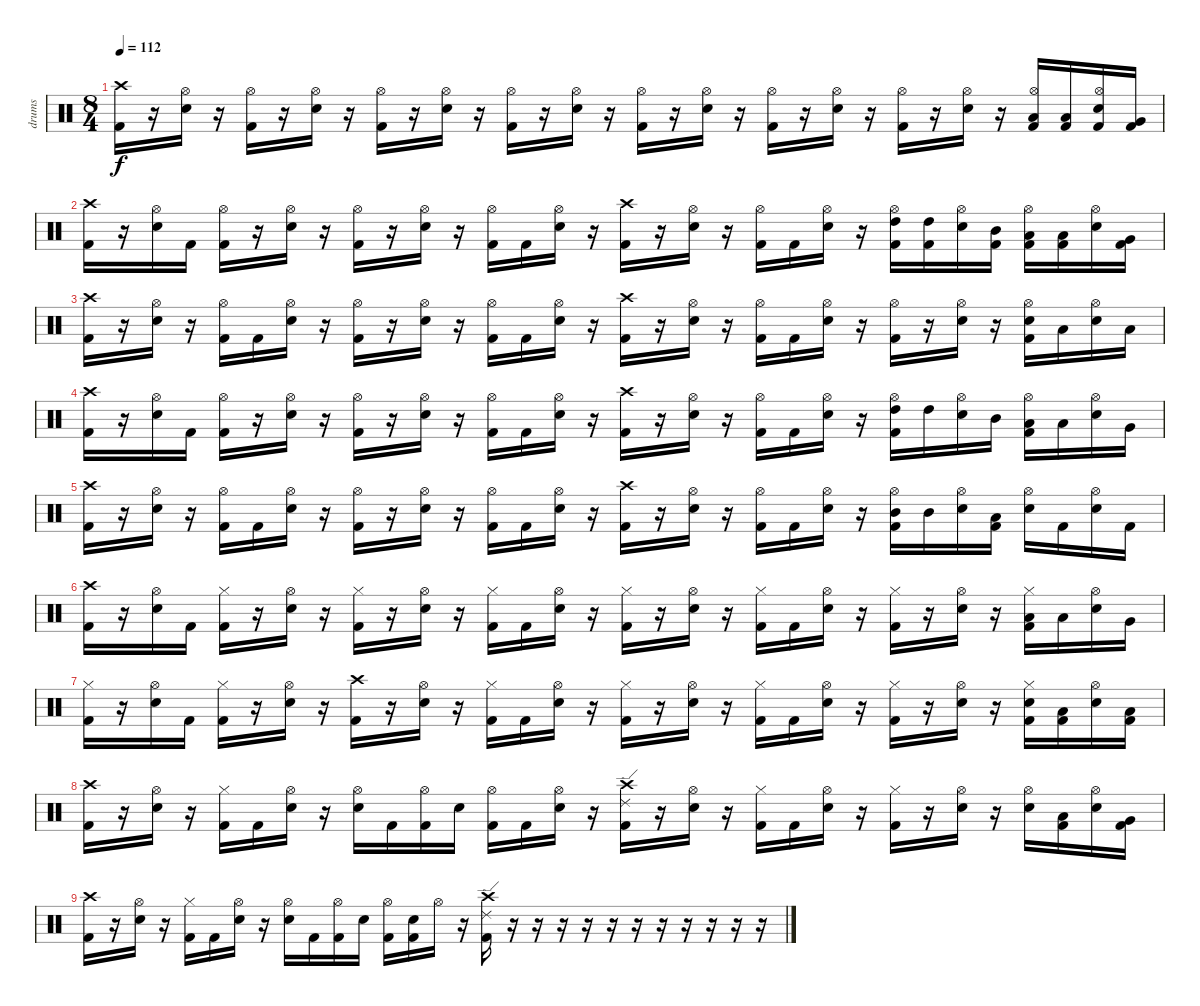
\track ("drums" "drums") {instrument percussion}
\staff {score}
\articulation defaults
\ts (8 4)
\tempo 112
\clef neutral
\ks c
("Crash high (hit)" "Kick (hit) 2").16{dy f} r.16 ("Hi-Hat (open)" "Electric Snare (hit)").16 r.16 ("Hi-Hat (open)" "Kick (hit) 2").16 r.16 ("Hi-Hat (open)" "Electric Snare (hit)").16 r.16 ("Hi-Hat (open)" "Kick (hit) 2").16 r.16 ("Hi-Hat (open)" "Electric Snare (hit)").16 r.16 ("Hi-Hat (open)" "Kick (hit) 2").16 r.16 ("Hi-Hat (open)" "Electric Snare (hit)").16 r.16 ("Hi-Hat (open)" "Kick (hit) 2").16 r.16 ("Hi-Hat (open)" "Electric Snare (hit)").16 r.16 ("Hi-Hat (open)" "Kick (hit) 2").16 r.16 ("Hi-Hat (open)" "Electric Snare (hit)").16 r.16 ("Hi-Hat (open)" "Kick (hit) 2").16 r.16 ("Hi-Hat (open)" "Electric Snare (hit)").16 r.16 ("Hi-Hat (open)" "Low Tom (hit)" "Kick (hit) 2").16 ("Low Tom (hit)" "Kick (hit) 2").16 ("Hi-Hat (open)" "Electric Snare (hit)" "Kick (hit) 2").16 ("Very Low Tom (hit)" "Kick (hit) 2").16 |
("Crash high (hit)" "Kick (hit) 2").16 r.16 ("Hi-Hat (open)" "Electric Snare (hit)").16 "Kick (hit) 2".16 ("Hi-Hat (open)" "Kick (hit) 2").16 r.16 ("Hi-Hat (open)" "Electric Snare (hit)").16 r.16 ("Hi-Hat (open)" "Kick (hit) 2").16 r.16 ("Hi-Hat (open)" "Electric Snare (hit)").16 r.16 ("Hi-Hat (open)" "Kick (hit) 2").16 "Kick (hit) 2".16 ("Hi-Hat (open)" "Electric Snare (hit)").16 r.16 ("Crash high (hit)" "Kick (hit) 2").16 r.16 ("Hi-Hat (open)" "Electric Snare (hit)").16 r.16 ("Hi-Hat (open)" "Kick (hit) 2").16 "Kick (hit) 2".16 ("Hi-Hat (open)" "Electric Snare (hit)").16 r.16 ("Hi-Hat (open)" "High Tom (hit)" "Kick (hit) 2").16 ("High Tom (hit)" "Kick (hit) 2").16 ("Hi-Hat (open)" "Electric Snare (hit)").16 ("Mid Tom (hit)" "Kick (hit) 2").16 ("Hi-Hat (open)" "Low Tom (hit)" "Kick (hit) 2").16 ("Low Tom (hit)" "Kick (hit) 2").16 ("Hi-Hat (open)" "Electric Snare (hit)").16 ("Very Low Tom (hit)" "Kick (hit) 2").16 |
("Crash high (hit)" "Kick (hit) 2").16 r.16 ("Hi-Hat (open)" "Electric Snare (hit)").16 r.16 ("Hi-Hat (open)" "Kick (hit) 2").16 "Kick (hit) 2".16 ("Hi-Hat (open)" "Electric Snare (hit)").16 r.16 ("Hi-Hat (open)" "Kick (hit) 2").16 r.16 ("Hi-Hat (open)" "Electric Snare (hit)").16 r.16 ("Hi-Hat (open)" "Kick (hit) 2").16 "Kick (hit) 2".16 ("Hi-Hat (open)" "Electric Snare (hit)").16 r.16 ("Crash high (hit)" "Kick (hit) 2").16 r.16 ("Hi-Hat (open)" "Electric Snare (hit)").16 r.16 ("Hi-Hat (open)" "Kick (hit) 2").16 "Kick (hit) 2".16 ("Hi-Hat (open)" "Electric Snare (hit)").16 r.16 ("Hi-Hat (open)" "Kick (hit) 2").16 r.16 ("Hi-Hat (open)" "Electric Snare (hit)").16 r.16 ("Hi-Hat (open)" "Electric Snare (hit)" "Kick (hit) 2").16 "Low Tom (hit)".16 ("Hi-Hat (open)" "Electric Snare (hit)").16 "Low Tom (hit)".16 |
("Crash high (hit)" "Kick (hit) 2").16 r.16 ("Hi-Hat (open)" "Electric Snare (hit)").16 "Kick (hit) 2".16 ("Hi-Hat (open)" "Kick (hit) 2").16 r.16 ("Hi-Hat (open)" "Electric Snare (hit)").16 r.16 ("Hi-Hat (open)" "Kick (hit) 2").16 r.16 ("Hi-Hat (open)" "Electric Snare (hit)").16 r.16 ("Hi-Hat (open)" "Kick (hit) 2").16 "Kick (hit) 2".16 ("Hi-Hat (open)" "Electric Snare (hit)").16 r.16 ("Crash high (hit)" "Kick (hit) 2").16 r.16 ("Hi-Hat (open)" "Electric Snare (hit)").16 r.16 ("Hi-Hat (open)" "Kick (hit) 2").16 "Kick (hit) 2".16 ("Hi-Hat (open)" "Electric Snare (hit)").16 r.16 ("Hi-Hat (open)" "High Tom (hit)" "Kick (hit) 2").16 "High Tom (hit)".16 ("Hi-Hat (open)" "Electric Snare (hit)").16 "Mid Tom (hit)".16 ("Hi-Hat (open)" "Low Tom (hit)" "Kick (hit) 2").16 "Low Tom (hit)".16 ("Hi-Hat (open)" "Electric Snare (hit)").16 "Very Low Tom (hit)".16 |
("Crash high (hit)" "Kick (hit) 2").16 r.16 ("Hi-Hat (open)" "Electric Snare (hit)").16 r.16 ("Hi-Hat (open)" "Kick (hit) 2").16 "Kick (hit) 2".16 ("Hi-Hat (open)" "Electric Snare (hit)").16 r.16 ("Hi-Hat (open)" "Kick (hit) 2").16 r.16 ("Hi-Hat (open)" "Electric Snare (hit)").16 r.16 ("Hi-Hat (open)" "Kick (hit) 2").16 "Kick (hit) 2".16 ("Hi-Hat (open)" "Electric Snare (hit)").16 r.16 ("Crash high (hit)" "Kick (hit) 2").16 r.16 ("Hi-Hat (open)" "Electric Snare (hit)").16 r.16 ("Hi-Hat (open)" "Kick (hit) 2").16 "Kick (hit) 2".16 ("Hi-Hat (open)" "Electric Snare (hit)").16 r.16 ("Hi-Hat (open)" "Mid Tom (hit)" "Kick (hit) 2").16 "Mid Tom (hit)".16 ("Hi-Hat (open)" "Electric Snare (hit)").16 ("Low Tom (hit)" "Kick (hit) 2").16 ("Hi-Hat (open)" "Electric Snare (hit)").16 "Kick (hit) 2".16 ("Hi-Hat (open)" "Electric Snare (hit)").16 "Kick (hit) 2".16 |
("Crash high (hit)" "Kick (hit) 2").16 r.16 ("Hi-Hat (open)" "Electric Snare (hit)").16 "Kick (hit) 2".16 ("Hi-Hat (closed)" "Kick (hit) 2").16 r.16 ("Hi-Hat (open)" "Electric Snare (hit)").16 r.16 ("Hi-Hat (closed)" "Kick (hit) 2").16 r.16 ("Hi-Hat (open)" "Electric Snare (hit)").16 r.16 ("Hi-Hat (closed)" "Kick (hit) 2").16 "Kick (hit) 2".16 ("Hi-Hat (open)" "Electric Snare (hit)").16 r.16 ("Hi-Hat (closed)" "Kick (hit) 2").16 r.16 ("Hi-Hat (open)" "Electric Snare (hit)").16 r.16 ("Hi-Hat (closed)" "Kick (hit) 2").16 "Kick (hit) 2".16 ("Hi-Hat (open)" "Electric Snare (hit)").16 r.16 ("Hi-Hat (closed)" "Kick (hit) 2").16 r.16 ("Hi-Hat (open)" "Electric Snare (hit)").16 r.16 ("Hi-Hat (closed)" "Low Tom (hit)" "Kick (hit) 2").16 "Low Tom (hit)".16 ("Hi-Hat (open)" "Electric Snare (hit)").16 "Very Low Tom (hit)".16 |
("Hi-Hat (closed)" "Kick (hit) 2").16 r.16 ("Hi-Hat (open)" "Electric Snare (hit)").16 "Kick (hit) 2".16 ("Hi-Hat (closed)" "Kick (hit) 2").16 r.16 ("Hi-Hat (open)" "Electric Snare (hit)").16 r.16 ("Crash high (hit)" "Kick (hit) 2").16 r.16 ("Hi-Hat (open)" "Electric Snare (hit)").16 r.16 ("Hi-Hat (closed)" "Kick (hit) 2").16 "Kick (hit) 2".16 ("Hi-Hat (open)" "Electric Snare (hit)").16 r.16 ("Hi-Hat (closed)" "Kick (hit) 2").16 r.16 ("Hi-Hat (open)" "Electric Snare (hit)").16 r.16 ("Hi-Hat (closed)" "Kick (hit) 2").16 "Kick (hit) 2".16 ("Hi-Hat (open)" "Electric Snare (hit)").16 r.16 ("Hi-Hat (closed)" "Kick (hit) 2").16 r.16 ("Hi-Hat (open)" "Electric Snare (hit)").16 r.16 ("Hi-Hat (closed)" "Electric Snare (hit)" "Kick (hit) 2").16 ("Low Tom (hit)" "Kick (hit) 2").16 ("Hi-Hat (open)" "Electric Snare (hit)").16 ("Low Tom (hit)" "Kick (hit) 2").16 |
("Crash high (hit)" "Kick (hit) 2").16 r.16 ("Hi-Hat (open)" "Electric Snare (hit)").16 r.16 ("Hi-Hat (closed)" "Kick (hit) 2").16 "Kick (hit) 2".16 ("Hi-Hat (open)" "Electric Snare (hit)").16 r.16 ("Hi-Hat (open)" "Electric Snare (hit)").16 "Kick (hit) 2".16 ("Hi-Hat (open)" "Kick (hit) 2").16 "Electric Snare (hit)".16 ("Hi-Hat (open)" "Kick (hit) 2").16 "Kick (hit) 2".16 ("Hi-Hat (open)" "Electric Snare (hit)").16 r.16 ("Crash high (hit)" "Ride (edge) 2" "Kick (hit) 2").16 r.16 ("Hi-Hat (open)" "Electric Snare (hit)").16 r.16 ("Hi-Hat (closed)" "Kick (hit) 2").16 "Kick (hit) 2".16 ("Hi-Hat (open)" "Electric Snare (hit)").16 r.16 ("Hi-Hat (closed)" "Kick (hit) 2").16 r.16 ("Hi-Hat (open)" "Electric Snare (hit)").16 r.16 ("Hi-Hat (open)" "Electric Snare (hit)").16 ("Low Tom (hit)" "Kick (hit) 2").16 ("Hi-Hat (open)" "Electric Snare (hit)").16 ("Very Low Tom (hit)" "Kick (hit) 2").16 |
("Crash high (hit)" "Kick (hit) 2").16 r.16 ("Hi-Hat (open)" "Electric Snare (hit)").16 r.16 ("Hi-Hat (closed)" "Kick (hit) 2").16 "Kick (hit) 2".16 ("Hi-Hat (open)" "Electric Snare (hit)").16 r.16 ("Hi-Hat (open)" "Electric Snare (hit)").16 "Kick (hit) 2".16 ("Hi-Hat (open)" "Kick (hit) 2").16 "Electric Snare (hit)".16 ("Hi-Hat (open)" "Kick (hit) 2").16 ("Electric Snare (hit)" "Kick (hit) 2").16 "Hi-Hat (open)".16 r.16 ("Crash high (hit)" "Ride (edge) 2" "Kick (hit) 2").16 r.16 r.16 r.16 r.16 r.16 r.16 r.16 r.16 r.16 r.16 r.16
